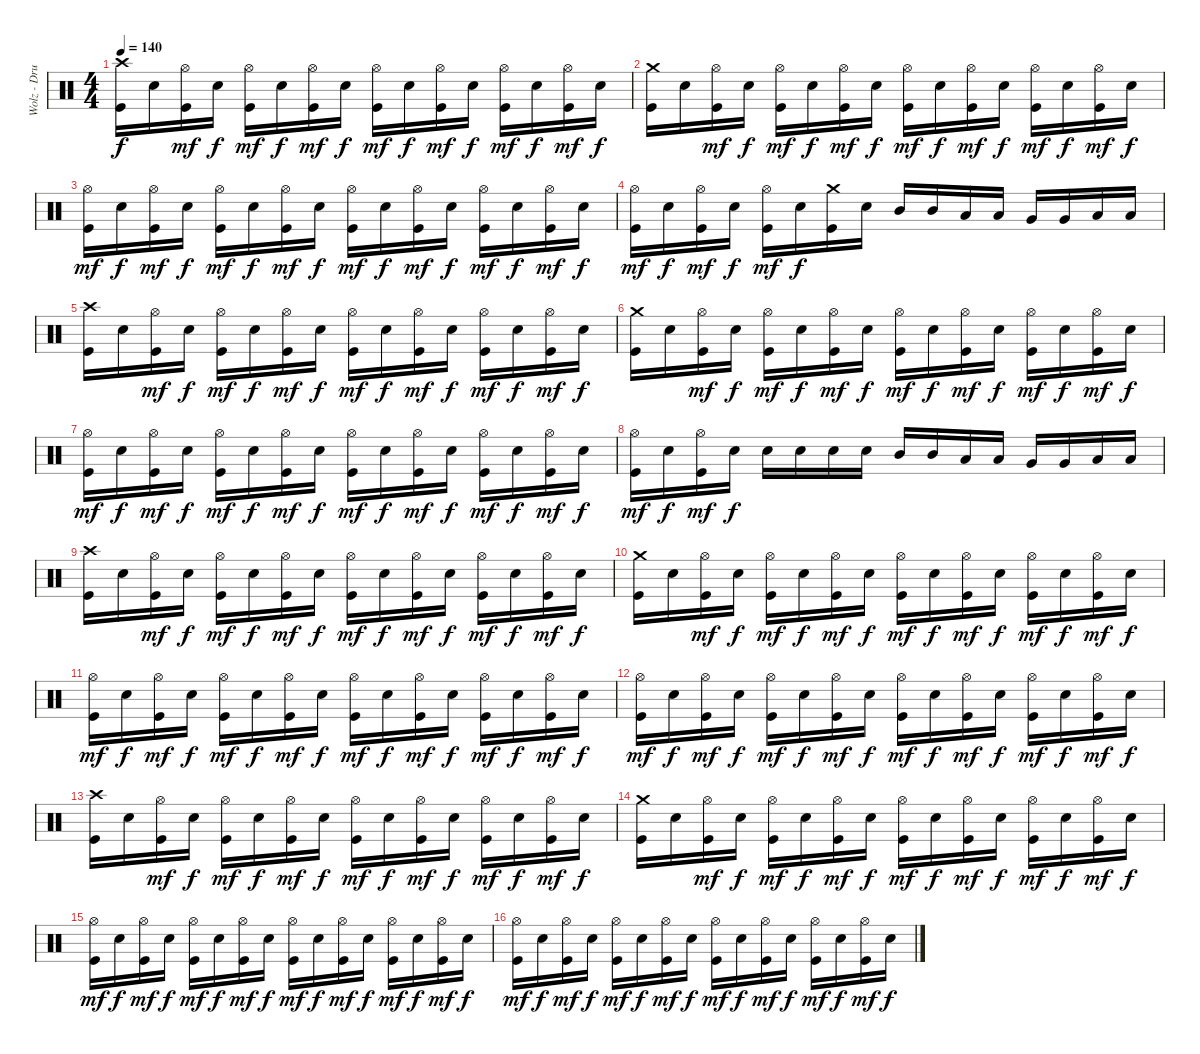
\track ("Wolz - Drums" "Wolz - Dru") {instrument percussion}
\staff {score}
\articulation defaults
\ts (4 4)
\tempo 140
\clef neutral
\ks c
("Crash high (hit)" "Kick (hit)").16{dy f} "Electric Snare (hit)".16 ("Hi-Hat (open)" "Kick (hit)").16{dy mf} "Electric Snare (hit)".16{dy f} ("Hi-Hat (open)" "Kick (hit)").16{dy mf} "Electric Snare (hit)".16{dy f} ("Hi-Hat (open)" "Kick (hit)").16{dy mf} "Electric Snare (hit)".16{dy f} ("Hi-Hat (open)" "Kick (hit)").16{dy mf} "Electric Snare (hit)".16{dy f} ("Hi-Hat (open)" "Kick (hit)").16{dy mf} "Electric Snare (hit)".16{dy f} ("Hi-Hat (open)" "Kick (hit)").16{dy mf} "Electric Snare (hit)".16{dy f} ("Hi-Hat (open)" "Kick (hit)").16{dy mf} "Electric Snare (hit)".16{dy f} |
("Crash medium (hit)" "Kick (hit)").16 "Electric Snare (hit)".16 ("Hi-Hat (open)" "Kick (hit)").16{dy mf} "Electric Snare (hit)".16{dy f} ("Hi-Hat (open)" "Kick (hit)").16{dy mf} "Electric Snare (hit)".16{dy f} ("Hi-Hat (open)" "Kick (hit)").16{dy mf} "Electric Snare (hit)".16{dy f} ("Hi-Hat (open)" "Kick (hit)").16{dy mf} "Electric Snare (hit)".16{dy f} ("Hi-Hat (open)" "Kick (hit)").16{dy mf} "Electric Snare (hit)".16{dy f} ("Hi-Hat (open)" "Kick (hit)").16{dy mf} "Electric Snare (hit)".16{dy f} ("Hi-Hat (open)" "Kick (hit)").16{dy mf} "Electric Snare (hit)".16{dy f} |
("Hi-Hat (open)" "Kick (hit)").16{dy mf} "Electric Snare (hit)".16{dy f} ("Hi-Hat (open)" "Kick (hit)").16{dy mf} "Electric Snare (hit)".16{dy f} ("Hi-Hat (open)" "Kick (hit)").16{dy mf} "Electric Snare (hit)".16{dy f} ("Hi-Hat (open)" "Kick (hit)").16{dy mf} "Electric Snare (hit)".16{dy f} ("Hi-Hat (open)" "Kick (hit)").16{dy mf} "Electric Snare (hit)".16{dy f} ("Hi-Hat (open)" "Kick (hit)").16{dy mf} "Electric Snare (hit)".16{dy f} ("Hi-Hat (open)" "Kick (hit)").16{dy mf} "Electric Snare (hit)".16{dy f} ("Hi-Hat (open)" "Kick (hit)").16{dy mf} "Electric Snare (hit)".16{dy f} |
("Hi-Hat (open)" "Kick (hit)").16{dy mf} "Electric Snare (hit)".16{dy f} ("Hi-Hat (open)" "Kick (hit)").16{dy mf} "Electric Snare (hit)".16{dy f} ("Hi-Hat (open)" "Kick (hit)").16{dy mf} "Electric Snare (hit)".16{dy f} ("Crash medium (hit)" "Kick (hit)").16 "Electric Snare (hit)".16 "Mid Tom (hit)".16 "Mid Tom (hit)".16 "Low Tom (hit)".16 "Low Tom (hit)".16 "Very Low Tom (hit)".16 "Very Low Tom (hit)".16 "Low Floor Tom (hit)".16 "Low Floor Tom (hit)".16 |
("Crash high (hit)" "Kick (hit)").16 "Electric Snare (hit)".16 ("Hi-Hat (open)" "Kick (hit)").16{dy mf} "Electric Snare (hit)".16{dy f} ("Hi-Hat (open)" "Kick (hit)").16{dy mf} "Electric Snare (hit)".16{dy f} ("Hi-Hat (open)" "Kick (hit)").16{dy mf} "Electric Snare (hit)".16{dy f} ("Hi-Hat (open)" "Kick (hit)").16{dy mf} "Electric Snare (hit)".16{dy f} ("Hi-Hat (open)" "Kick (hit)").16{dy mf} "Electric Snare (hit)".16{dy f} ("Hi-Hat (open)" "Kick (hit)").16{dy mf} "Electric Snare (hit)".16{dy f} ("Hi-Hat (open)" "Kick (hit)").16{dy mf} "Electric Snare (hit)".16{dy f} |
("Crash medium (hit)" "Kick (hit)").16 "Electric Snare (hit)".16 ("Hi-Hat (open)" "Kick (hit)").16{dy mf} "Electric Snare (hit)".16{dy f} ("Hi-Hat (open)" "Kick (hit)").16{dy mf} "Electric Snare (hit)".16{dy f} ("Hi-Hat (open)" "Kick (hit)").16{dy mf} "Electric Snare (hit)".16{dy f} ("Hi-Hat (open)" "Kick (hit)").16{dy mf} "Electric Snare (hit)".16{dy f} ("Hi-Hat (open)" "Kick (hit)").16{dy mf} "Electric Snare (hit)".16{dy f} ("Hi-Hat (open)" "Kick (hit)").16{dy mf} "Electric Snare (hit)".16{dy f} ("Hi-Hat (open)" "Kick (hit)").16{dy mf} "Electric Snare (hit)".16{dy f} |
("Hi-Hat (open)" "Kick (hit)").16{dy mf} "Electric Snare (hit)".16{dy f} ("Hi-Hat (open)" "Kick (hit)").16{dy mf} "Electric Snare (hit)".16{dy f} ("Hi-Hat (open)" "Kick (hit)").16{dy mf} "Electric Snare (hit)".16{dy f} ("Hi-Hat (open)" "Kick (hit)").16{dy mf} "Electric Snare (hit)".16{dy f} ("Hi-Hat (open)" "Kick (hit)").16{dy mf} "Electric Snare (hit)".16{dy f} ("Hi-Hat (open)" "Kick (hit)").16{dy mf} "Electric Snare (hit)".16{dy f} ("Hi-Hat (open)" "Kick (hit)").16{dy mf} "Electric Snare (hit)".16{dy f} ("Hi-Hat (open)" "Kick (hit)").16{dy mf} "Electric Snare (hit)".16{dy f} |
("Hi-Hat (open)" "Kick (hit)").16{dy mf} "Electric Snare (hit)".16{dy f} ("Hi-Hat (open)" "Kick (hit)").16{dy mf} "Electric Snare (hit)".16{dy f} "Electric Snare (hit)".16 "Electric Snare (hit)".16 "Electric Snare (hit)".16 "Electric Snare (hit)".16 "Mid Tom (hit)".16 "Mid Tom (hit)".16 "Low Tom (hit)".16 "Low Tom (hit)".16 "Very Low Tom (hit)".16 "Very Low Tom (hit)".16 "Low Floor Tom (hit)".16 "Low Floor Tom (hit)".16 |
("Crash high (hit)" "Kick (hit)").16 "Electric Snare (hit)".16 ("Hi-Hat (open)" "Kick (hit)").16{dy mf} "Electric Snare (hit)".16{dy f} ("Hi-Hat (open)" "Kick (hit)").16{dy mf} "Electric Snare (hit)".16{dy f} ("Hi-Hat (open)" "Kick (hit)").16{dy mf} "Electric Snare (hit)".16{dy f} ("Hi-Hat (open)" "Kick (hit)").16{dy mf} "Electric Snare (hit)".16{dy f} ("Hi-Hat (open)" "Kick (hit)").16{dy mf} "Electric Snare (hit)".16{dy f} ("Hi-Hat (open)" "Kick (hit)").16{dy mf} "Electric Snare (hit)".16{dy f} ("Hi-Hat (open)" "Kick (hit)").16{dy mf} "Electric Snare (hit)".16{dy f} |
("Crash medium (hit)" "Kick (hit)").16 "Electric Snare (hit)".16 ("Hi-Hat (open)" "Kick (hit)").16{dy mf} "Electric Snare (hit)".16{dy f} ("Hi-Hat (open)" "Kick (hit)").16{dy mf} "Electric Snare (hit)".16{dy f} ("Hi-Hat (open)" "Kick (hit)").16{dy mf} "Electric Snare (hit)".16{dy f} ("Hi-Hat (open)" "Kick (hit)").16{dy mf} "Electric Snare (hit)".16{dy f} ("Hi-Hat (open)" "Kick (hit)").16{dy mf} "Electric Snare (hit)".16{dy f} ("Hi-Hat (open)" "Kick (hit)").16{dy mf} "Electric Snare (hit)".16{dy f} ("Hi-Hat (open)" "Kick (hit)").16{dy mf} "Electric Snare (hit)".16{dy f} |
("Hi-Hat (open)" "Kick (hit)").16{dy mf} "Electric Snare (hit)".16{dy f} ("Hi-Hat (open)" "Kick (hit)").16{dy mf} "Electric Snare (hit)".16{dy f} ("Hi-Hat (open)" "Kick (hit)").16{dy mf} "Electric Snare (hit)".16{dy f} ("Hi-Hat (open)" "Kick (hit)").16{dy mf} "Electric Snare (hit)".16{dy f} ("Hi-Hat (open)" "Kick (hit)").16{dy mf} "Electric Snare (hit)".16{dy f} ("Hi-Hat (open)" "Kick (hit)").16{dy mf} "Electric Snare (hit)".16{dy f} ("Hi-Hat (open)" "Kick (hit)").16{dy mf} "Electric Snare (hit)".16{dy f} ("Hi-Hat (open)" "Kick (hit)").16{dy mf} "Electric Snare (hit)".16{dy f} |
("Hi-Hat (open)" "Kick (hit)").16{dy mf} "Electric Snare (hit)".16{dy f} ("Hi-Hat (open)" "Kick (hit)").16{dy mf} "Electric Snare (hit)".16{dy f} ("Hi-Hat (open)" "Kick (hit)").16{dy mf} "Electric Snare (hit)".16{dy f} ("Hi-Hat (open)" "Kick (hit)").16{dy mf} "Electric Snare (hit)".16{dy f} ("Hi-Hat (open)" "Kick (hit)").16{dy mf} "Electric Snare (hit)".16{dy f} ("Hi-Hat (open)" "Kick (hit)").16{dy mf} "Electric Snare (hit)".16{dy f} ("Hi-Hat (open)" "Kick (hit)").16{dy mf} "Electric Snare (hit)".16{dy f} ("Hi-Hat (open)" "Kick (hit)").16{dy mf} "Electric Snare (hit)".16{dy f} |
("Crash high (hit)" "Kick (hit)").16 "Electric Snare (hit)".16 ("Hi-Hat (open)" "Kick (hit)").16{dy mf} "Electric Snare (hit)".16{dy f} ("Hi-Hat (open)" "Kick (hit)").16{dy mf} "Electric Snare (hit)".16{dy f} ("Hi-Hat (open)" "Kick (hit)").16{dy mf} "Electric Snare (hit)".16{dy f} ("Hi-Hat (open)" "Kick (hit)").16{dy mf} "Electric Snare (hit)".16{dy f} ("Hi-Hat (open)" "Kick (hit)").16{dy mf} "Electric Snare (hit)".16{dy f} ("Hi-Hat (open)" "Kick (hit)").16{dy mf} "Electric Snare (hit)".16{dy f} ("Hi-Hat (open)" "Kick (hit)").16{dy mf} "Electric Snare (hit)".16{dy f} |
("Crash medium (hit)" "Kick (hit)").16 "Electric Snare (hit)".16 ("Hi-Hat (open)" "Kick (hit)").16{dy mf} "Electric Snare (hit)".16{dy f} ("Hi-Hat (open)" "Kick (hit)").16{dy mf} "Electric Snare (hit)".16{dy f} ("Hi-Hat (open)" "Kick (hit)").16{dy mf} "Electric Snare (hit)".16{dy f} ("Hi-Hat (open)" "Kick (hit)").16{dy mf} "Electric Snare (hit)".16{dy f} ("Hi-Hat (open)" "Kick (hit)").16{dy mf} "Electric Snare (hit)".16{dy f} ("Hi-Hat (open)" "Kick (hit)").16{dy mf} "Electric Snare (hit)".16{dy f} ("Hi-Hat (open)" "Kick (hit)").16{dy mf} "Electric Snare (hit)".16{dy f} |
("Hi-Hat (open)" "Kick (hit)").16{dy mf} "Electric Snare (hit)".16{dy f} ("Hi-Hat (open)" "Kick (hit)").16{dy mf} "Electric Snare (hit)".16{dy f} ("Hi-Hat (open)" "Kick (hit)").16{dy mf} "Electric Snare (hit)".16{dy f} ("Hi-Hat (open)" "Kick (hit)").16{dy mf} "Electric Snare (hit)".16{dy f} ("Hi-Hat (open)" "Kick (hit)").16{dy mf} "Electric Snare (hit)".16{dy f} ("Hi-Hat (open)" "Kick (hit)").16{dy mf} "Electric Snare (hit)".16{dy f} ("Hi-Hat (open)" "Kick (hit)").16{dy mf} "Electric Snare (hit)".16{dy f} ("Hi-Hat (open)" "Kick (hit)").16{dy mf} "Electric Snare (hit)".16{dy f} |
("Hi-Hat (open)" "Kick (hit)").16{dy mf} "Electric Snare (hit)".16{dy f} ("Hi-Hat (open)" "Kick (hit)").16{dy mf} "Electric Snare (hit)".16{dy f} ("Hi-Hat (open)" "Kick (hit)").16{dy mf} "Electric Snare (hit)".16{dy f} ("Hi-Hat (open)" "Kick (hit)").16{dy mf} "Electric Snare (hit)".16{dy f} ("Hi-Hat (open)" "Kick (hit)").16{dy mf} "Electric Snare (hit)".16{dy f} ("Hi-Hat (open)" "Kick (hit)").16{dy mf} "Electric Snare (hit)".16{dy f} ("Hi-Hat (open)" "Kick (hit)").16{dy mf} "Electric Snare (hit)".16{dy f} ("Hi-Hat (open)" "Kick (hit)").16{dy mf} "Electric Snare (hit)".16{dy f}
